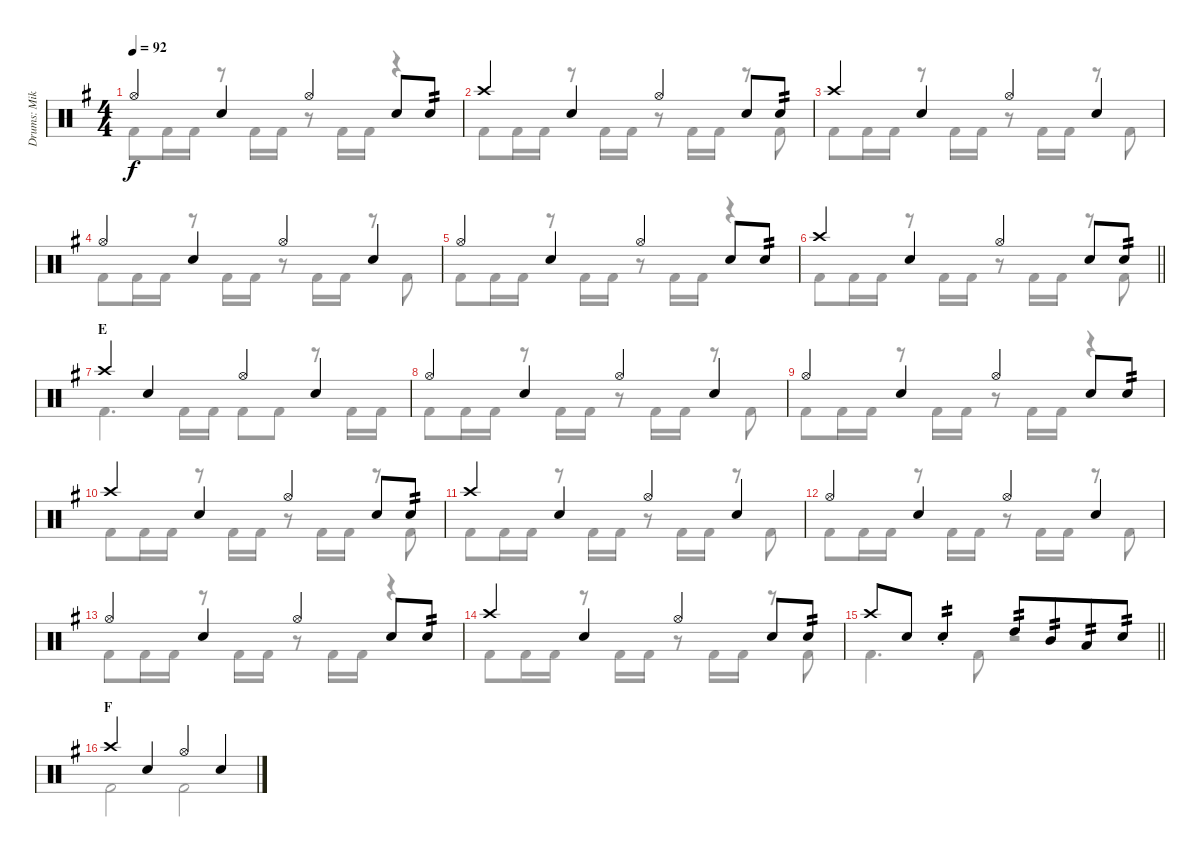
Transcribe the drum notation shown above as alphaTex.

\track ("Drums: Mike" "Drums: Mik") {instrument percussion}
\staff {score}
\articulation defaults
\voice
\ts (4 4)
\tempo 92
\clef neutral
\ks g "Hi-Hat (open)".4{dy f} "Snare (hit) 2".4 "Hi-Hat (open)".4{beam merge} "Snare (hit) 2".8 "Electric Snare (hit)".8{tp 2}
|
"Crash high (hit)".4 "Snare (hit) 2".4 "Hi-Hat (open)".4{beam merge} "Snare (hit) 2".8 "Electric Snare (hit)".8{tp 2} |
"Crash high (hit)".4 "Snare (hit) 2".4 "Hi-Hat (open)".4{beam merge} "Snare (hit) 2".4 |
"Hi-Hat (open)".4 "Snare (hit) 2".4 "Hi-Hat (open)".4{beam merge} "Snare (hit) 2".4 |
"Hi-Hat (open)".4 "Snare (hit) 2".4 "Hi-Hat (open)".4{beam merge} "Snare (hit) 2".8 "Electric Snare (hit)".8{tp 2} |
\barLineRight lightlight "Crash high (hit)".4 "Snare (hit) 2".4 "Hi-Hat (open)".4{beam merge} "Snare (hit) 2".8 "Electric Snare (hit)".8{tp 2}
|
\section ("" "E")
"Crash high (hit)".4 "Snare (hit) 2".4 "Hi-Hat (open)".4{beam merge} "Snare (hit) 2".4 |
"Hi-Hat (open)".4 "Snare (hit) 2".4 "Hi-Hat (open)".4{beam merge} "Snare (hit) 2".4 |
"Hi-Hat (open)".4 "Snare (hit) 2".4 "Hi-Hat (open)".4{beam merge} "Snare (hit) 2".8 "Electric Snare (hit)".8{tp 2} |
"Crash high (hit)".4 "Snare (hit) 2".4 "Hi-Hat (open)".4{beam merge} "Snare (hit) 2".8 "Electric Snare (hit)".8{tp 2} |
"Crash high (hit)".4 "Snare (hit) 2".4 "Hi-Hat (open)".4{beam merge} "Snare (hit) 2".4 |
"Hi-Hat (open)".4 "Snare (hit) 2".4 "Hi-Hat (open)".4{beam merge} "Snare (hit) 2".4 |
"Hi-Hat (open)".4 "Snare (hit) 2".4 "Hi-Hat (open)".4{beam merge} "Snare (hit) 2".8 "Electric Snare (hit)".8{tp 2} |
"Crash high (hit)".4 "Snare (hit) 2".4 "Hi-Hat (open)".4{beam merge} "Snare (hit) 2".8 "Electric Snare (hit)".8{tp 2} |
\barLineRight lightlight "Crash high (hit)".8 "Snare (hit) 2".8 "Electric Snare (hit)"{st}.4{tp 2} "High Tom (hit)".8{tp 2} "Mid Tom (hit)".8{tp 2 beam merge} "Low Tom (hit)".8{tp 2} "Snare (hit) 2".8{tp 2}
|
\section ("" "F")
"Crash high (hit)".4 "Snare (hit) 2".4 "Hi-Hat (open)".4{beam merge} "Snare (hit) 2".4
\voice
\clef neutral
\ottava regular
\simile none
\ks g "Kick (hit) 2".8{dy f} "Kick (hit) 2".16 "Kick (hit) 2".16
r.8 "Kick (hit) 2".16 "Kick (hit) 2".16 r.8 "Kick (hit) 2".16 "Kick (hit) 2".16 r.4 |
"Kick (hit) 2".8 "Kick (hit) 2".16 "Kick (hit) 2".16 r.8 "Kick (hit) 2".16 "Kick (hit) 2".16 r.8 "Kick (hit) 2".16 "Kick (hit) 2".16 r.8 "Kick (hit) 2".8 |
"Kick (hit) 2".8 "Kick (hit) 2".16 "Kick (hit) 2".16 r.8 "Kick (hit) 2".16 "Kick (hit) 2".16 r.8 "Kick (hit) 2".16 "Kick (hit) 2".16 r.8 "Kick (hit) 2".8 |
"Kick (hit) 2".8 "Kick (hit) 2".16 "Kick (hit) 2".16 r.8 "Kick (hit) 2".16 "Kick (hit) 2".16 r.8 "Kick (hit) 2".16 "Kick (hit) 2".16 r.8 "Kick (hit) 2".8 |
"Kick (hit) 2".8 "Kick (hit) 2".16 "Kick (hit) 2".16 r.8 "Kick (hit) 2".16 "Kick (hit) 2".16 r.8 "Kick (hit) 2".16 "Kick (hit) 2".16 r.4 |
\barLineRight lightlight "Kick (hit) 2".8 "Kick (hit) 2".16 "Kick (hit) 2".16
r.8 "Kick (hit) 2".16 "Kick (hit) 2".16 r.8 "Kick (hit) 2".16 "Kick (hit) 2".16 r.8 "Kick (hit) 2".8 |
"Kick (hit) 2".4{d} "Kick (hit) 2".16 "Kick (hit) 2".16 "Kick (hit) 2".8 "Kick (hit) 2".8 r.8 "Kick (hit) 2".16 "Kick (hit) 2".16 |
"Kick (hit) 2".8 "Kick (hit) 2".16 "Kick (hit) 2".16 r.8 "Kick (hit) 2".16 "Kick (hit) 2".16 r.8 "Kick (hit) 2".16 "Kick (hit) 2".16 r.8 "Kick (hit) 2".8 |
"Kick (hit) 2".8 "Kick (hit) 2".16 "Kick (hit) 2".16 r.8 "Kick (hit) 2".16 "Kick (hit) 2".16 r.8 "Kick (hit) 2".16 "Kick (hit) 2".16 r.4 |
"Kick (hit) 2".8 "Kick (hit) 2".16 "Kick (hit) 2".16 r.8 "Kick (hit) 2".16 "Kick (hit) 2".16 r.8 "Kick (hit) 2".16 "Kick (hit) 2".16 r.8 "Kick (hit) 2".8 |
"Kick (hit) 2".8 "Kick (hit) 2".16 "Kick (hit) 2".16 r.8 "Kick (hit) 2".16 "Kick (hit) 2".16 r.8 "Kick (hit) 2".16 "Kick (hit) 2".16 r.8 "Kick (hit) 2".8 |
"Kick (hit) 2".8 "Kick (hit) 2".16 "Kick (hit) 2".16 r.8 "Kick (hit) 2".16 "Kick (hit) 2".16 r.8 "Kick (hit) 2".16 "Kick (hit) 2".16 r.8 "Kick (hit) 2".8 |
"Kick (hit) 2".8 "Kick (hit) 2".16 "Kick (hit) 2".16 r.8 "Kick (hit) 2".16 "Kick (hit) 2".16 r.8 "Kick (hit) 2".16 "Kick (hit) 2".16 r.4 |
"Kick (hit) 2".8 "Kick (hit) 2".16 "Kick (hit) 2".16 r.8 "Kick (hit) 2".16 "Kick (hit) 2".16 r.8 "Kick (hit) 2".16 "Kick (hit) 2".16 r.8 "Kick (hit) 2".8 |
\barLineRight lightlight "Kick (hit) 2".4{d} "Kick (hit) 2".8
r.2 |
"Kick (hit) 2".2 "Kick (hit) 2".2
